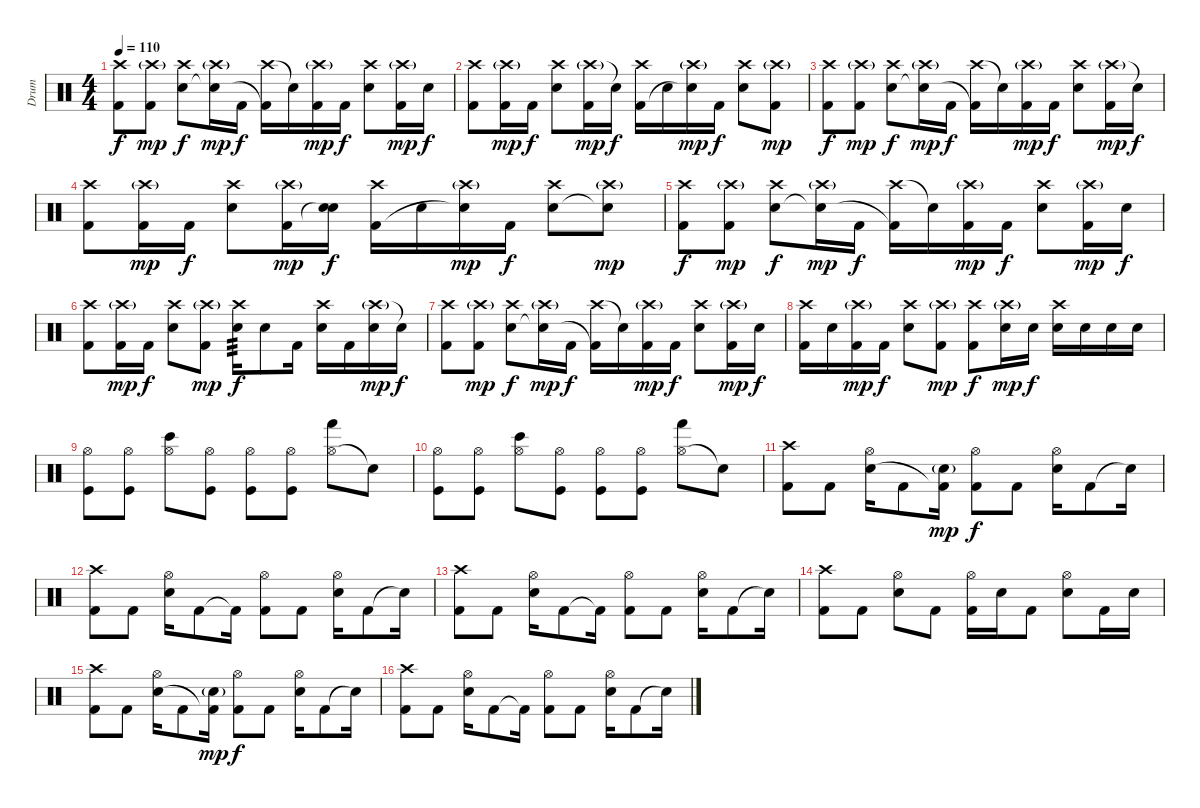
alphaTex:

\track ("Drum" "Drum") {instrument percussion}
\staff {score}
\articulation defaults
\ts (4 4)
\tempo 110
\clef neutral
\ks c
("Crash high (hit)" "Kick (hit) 2").8{dy f} ("Crash high (hit)"{g} "Kick (hit) 2").8{dy mp} ("Crash high (hit)" "Electric Snare (hit)").8{dy f} ("Crash high (hit)"{g} "Snare (hit)"{t}).16{dy mp} "Kick (hit) 2".16{dy f} ("Crash high (hit)" "Kick (hit) 2"{t}).16 "Snare (hit)"{t}.16 ("Crash high (hit)"{g} "Kick (hit) 2").16{dy mp} "Kick (hit) 2".16{dy f} ("Crash high (hit)" "Electric Snare (hit)").8 ("Crash high (hit)"{g} "Kick (hit) 2").16{dy mp} "Electric Snare (hit)".16{dy f} |
("Crash high (hit)" "Kick (hit) 2").8 ("Crash high (hit)"{g} "Kick (hit) 2").16{dy mp} "Kick (hit) 2".16{dy f} ("Crash high (hit)" "Electric Snare (hit)").8 ("Crash high (hit)"{g} "Kick (hit) 2").16{dy mp} "Snare (hit)"{t}.16{dy f} ("Crash high (hit)" "Kick (hit) 2").16 "Electric Snare (hit)".16 ("Crash high (hit)"{g} "Snare (hit)"{t}).16{dy mp} "Kick (hit) 2".16{dy f} ("Crash high (hit)" "Electric Snare (hit)").8 ("Crash high (hit)"{g} "Kick (hit) 2").8{dy mp} |
("Crash high (hit)" "Kick (hit) 2").8{dy f} ("Crash high (hit)"{g} "Kick (hit) 2").8{dy mp} ("Crash high (hit)" "Electric Snare (hit)").8{dy f} ("Crash high (hit)"{g} "Snare (hit)"{t}).16{dy mp} "Kick (hit) 2".16{dy f} ("Crash high (hit)" "Kick (hit) 2"{t}).16 "Snare (hit)"{t}.16 ("Crash high (hit)"{g} "Kick (hit) 2").16{dy mp} "Kick (hit) 2".16{dy f} ("Crash high (hit)" "Electric Snare (hit)").8 ("Crash high (hit)"{g} "Kick (hit) 2").16{dy mp} "Snare (hit)"{t}.16{dy f} |
("Crash high (hit)" "Kick (hit) 2").8 ("Crash high (hit)"{g} "Kick (hit) 2").16{dy mp} "Kick (hit) 2".16{dy f} ("Crash high (hit)" "Electric Snare (hit)").8 ("Crash high (hit)"{g} "Kick (hit) 2").16{dy mp} ("Electric Snare (hit)" "Snare (hit)"{t}).16{dy f} ("Crash high (hit)" "Kick (hit) 2").16 "Electric Snare (hit)".16 ("Crash high (hit)"{g} "Snare (hit)"{t}).16{dy mp} "Kick (hit) 2".16{dy f} ("Crash high (hit)" "Electric Snare (hit)").8 ("Crash high (hit)"{g} "Snare (hit)"{t}).8{dy mp} |
("Crash high (hit)" "Kick (hit) 2").8{dy f} ("Crash high (hit)"{g} "Kick (hit) 2").8{dy mp} ("Crash high (hit)" "Electric Snare (hit)").8{dy f} ("Crash high (hit)"{g} "Snare (hit)"{t}).16{dy mp} "Kick (hit) 2".16{dy f} ("Crash high (hit)" "Kick (hit) 2"{t}).16 "Snare (hit)"{t}.16 ("Crash high (hit)"{g} "Kick (hit) 2").16{dy mp} "Kick (hit) 2".16{dy f} ("Crash high (hit)" "Electric Snare (hit)").8 ("Crash high (hit)"{g} "Kick (hit) 2").16{dy mp} "Electric Snare (hit)".16{dy f} |
("Crash high (hit)" "Kick (hit) 2").8 ("Crash high (hit)"{g} "Kick (hit) 2").16{dy mp} "Kick (hit) 2".16{dy f} ("Crash high (hit)" "Electric Snare (hit)").8 ("Crash high (hit)"{g} "Kick (hit) 2").8{dy mp} ("Crash high (hit)" "Electric Snare (hit)").16{tp 3 dy f} "Electric Snare (hit)".8 "Kick (hit) 2".16 ("Crash high (hit)" "Electric Snare (hit)").16 "Kick (hit) 2".16 ("Crash high (hit)"{g} "Electric Snare (hit)").16{dy mp} "Snare (hit)"{t}.16{dy f} |
("Crash high (hit)" "Kick (hit) 2").8 ("Crash high (hit)"{g} "Kick (hit) 2").8{dy mp} ("Crash high (hit)" "Electric Snare (hit)").8{dy f} ("Crash high (hit)"{g} "Snare (hit)"{t}).16{dy mp} "Kick (hit) 2".16{dy f} ("Crash high (hit)" "Kick (hit) 2"{t}).16 "Snare (hit)"{t}.16 ("Crash high (hit)"{g} "Kick (hit) 2").16{dy mp} "Kick (hit) 2".16{dy f} ("Crash high (hit)" "Electric Snare (hit)").8 ("Crash high (hit)"{g} "Kick (hit) 2").16{dy mp} "Electric Snare (hit)".16{dy f} |
("Crash high (hit)" "Kick (hit) 2").16 "Electric Snare (hit)".16 ("Crash high (hit)"{g} "Kick (hit) 2").16{dy mp} "Kick (hit) 2".16{dy f} ("Crash high (hit)" "Electric Snare (hit)").8 ("Crash high (hit)"{g} "Kick (hit) 2").8{dy mp} ("Crash high (hit)" "Kick (hit) 2").8{dy f} ("Crash high (hit)"{g} "Electric Snare (hit)").16{dy mp} "Electric Snare (hit)".16{dy f} ("Crash high (hit)" "Electric Snare (hit)").16 "Electric Snare (hit)".16 "Electric Snare (hit)".16 "Electric Snare (hit)".16 |
("Hi-Hat (open)" "Kick (hit)").8 ("Hi-Hat (open)" "Kick (hit)").8 ("Hi-Hat (open)" "Bongo High (hit)").8 ("Hi-Hat (open)" "Kick (hit)").8 ("Hi-Hat (open)" "Kick (hit)").8 ("Hi-Hat (open)" "Kick (hit)").8 ("Hi-Hat (open)" "Hand (hit)").8 "Snare (hit)"{t}.8 |
("Hi-Hat (open)" "Kick (hit)").8 ("Hi-Hat (open)" "Kick (hit)").8 ("Hi-Hat (open)" "Bongo High (hit)").8 ("Hi-Hat (open)" "Kick (hit)").8 ("Hi-Hat (open)" "Kick (hit)").8 ("Hi-Hat (open)" "Kick (hit)").8 ("Hi-Hat (open)" "Hand (hit)").8 "Snare (hit)"{t}.8 |
("Crash high (hit)" "Kick (hit) 2").8{volume 11} "Kick (hit) 2".8 ("Hi-Hat (open)" "Electric Snare (hit)").16 "Kick (hit) 2".8 ("Electric Snare (hit)"{g} "Kick (hit) 2"{t}).16{dy mp} ("Hi-Hat (open)" "Kick (hit) 2").8{dy f} "Kick (hit) 2".8 ("Hi-Hat (open)" "Electric Snare (hit)").16 "Kick (hit) 2".8 "Snare (hit)"{t}.16 |
("Crash high (hit)" "Kick (hit) 2").8 "Kick (hit) 2".8 ("Hi-Hat (open)" "Electric Snare (hit)").16 "Kick (hit) 2".8 "Kick (hit) 2"{t}.16 ("Hi-Hat (open)" "Kick (hit) 2").8 "Kick (hit) 2".8 ("Hi-Hat (open)" "Electric Snare (hit)").16 "Kick (hit) 2".8 "Snare (hit)"{t}.16 |
("Crash high (hit)" "Kick (hit) 2").8 "Kick (hit) 2".8 ("Hi-Hat (open)" "Electric Snare (hit)").16 "Kick (hit) 2".8 "Kick (hit) 2"{t}.16 ("Hi-Hat (open)" "Kick (hit) 2").8 "Kick (hit) 2".8 ("Hi-Hat (open)" "Electric Snare (hit)").16 "Kick (hit) 2".8 "Snare (hit)"{t}.16 |
("Crash high (hit)" "Kick (hit) 2").8 "Kick (hit) 2".8 ("Hi-Hat (open)" "Electric Snare (hit)").8 "Kick (hit) 2".8 ("Hi-Hat (open)" "Kick (hit) 2").16 "Electric Snare (hit)".16 "Kick (hit) 2".8 ("Hi-Hat (open)" "Electric Snare (hit)").8 "Kick (hit) 2".16 "Electric Snare (hit)".16 |
("Crash high (hit)" "Kick (hit) 2").8 "Kick (hit) 2".8 ("Hi-Hat (open)" "Electric Snare (hit)").16 "Kick (hit) 2".8 ("Electric Snare (hit)"{g} "Kick (hit) 2"{t}).16{dy mp} ("Hi-Hat (open)" "Kick (hit) 2").8{dy f} "Kick (hit) 2".8 ("Hi-Hat (open)" "Electric Snare (hit)").16 "Kick (hit) 2".8 "Snare (hit)"{t}.16 |
("Crash high (hit)" "Kick (hit) 2").8 "Kick (hit) 2".8 ("Hi-Hat (open)" "Electric Snare (hit)").16 "Kick (hit) 2".8 "Kick (hit) 2"{t}.16 ("Hi-Hat (open)" "Kick (hit) 2").8 "Kick (hit) 2".8 ("Hi-Hat (open)" "Electric Snare (hit)").16 "Kick (hit) 2".8 "Snare (hit)"{t}.16
